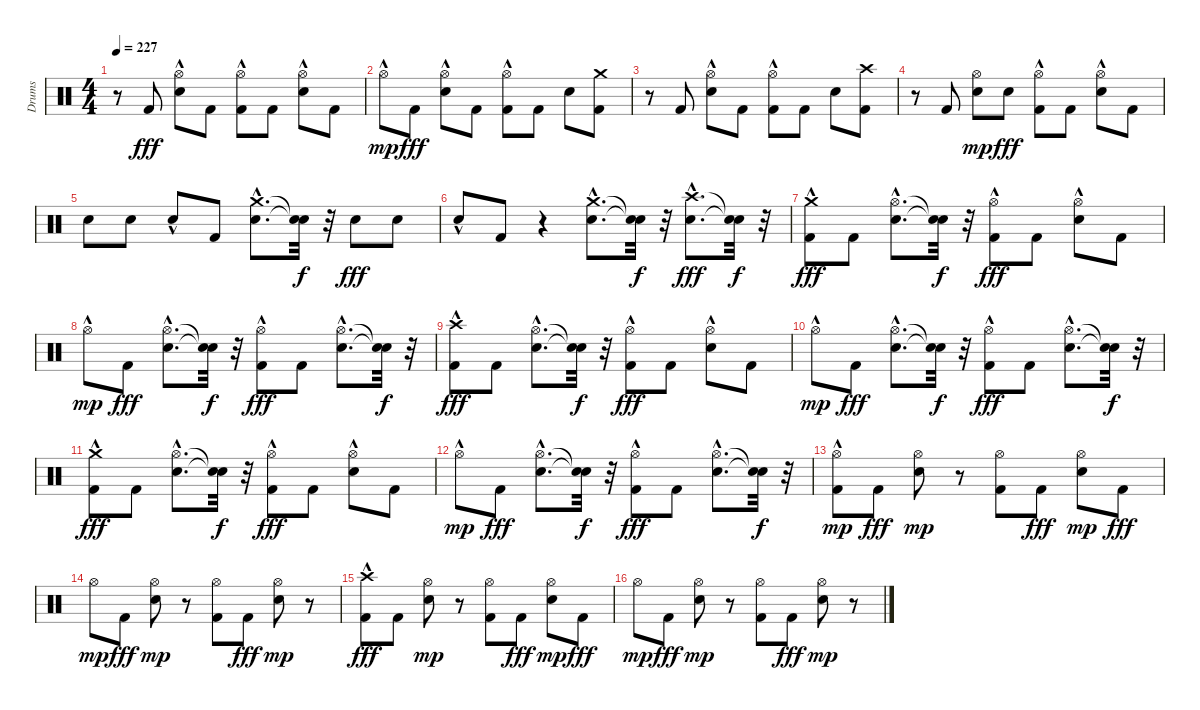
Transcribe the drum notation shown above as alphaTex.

\track ("Drums" "Drums") {instrument percussion}
\staff {score}
\articulation defaults
\ts (4 4)
\tempo 227
\clef neutral
\ks c
r.8{dy fff} "Kick (hit) 2".8 ("Hi-Hat (open)"{hac} "Snare (hit) 2"{hac}).8 "Kick (hit) 2".8 ("Hi-Hat (open)"{hac} "Kick (hit) 2").8 "Kick (hit) 2".8 ("Hi-Hat (open)"{hac} "Snare (hit) 2"{hac}).8 "Kick (hit) 2".8 |
"Hi-Hat (open)"{hac}.8{dy mp} "Kick (hit) 2".8{dy fff} ("Hi-Hat (open)"{hac} "Snare (hit) 2"{hac}).8 "Kick (hit) 2".8 ("Hi-Hat (open)"{hac} "Kick (hit) 2").8 "Kick (hit) 2".8 "Snare (hit) 2".8 ("Kick (hit) 2" "Crash medium (hit)").8 |
r.8 "Kick (hit) 2".8 ("Hi-Hat (open)"{hac} "Snare (hit) 2"{hac}).8 "Kick (hit) 2".8 ("Hi-Hat (open)"{hac} "Kick (hit) 2").8 "Kick (hit) 2".8 "Snare (hit) 2".8 ("Kick (hit) 2" "Crash high (hit)").8 |
r.8 "Kick (hit) 2".8 ("Snare (hit) 2" "Hi-Hat (open)").8{dy mp} "Snare (hit) 2".8{dy fff} ("Hi-Hat (open)"{hac} "Kick (hit) 2").8 "Kick (hit) 2".8 ("Hi-Hat (open)"{hac} "Snare (hit) 2"{hac}).8 "Kick (hit) 2".8 |
"Snare (hit) 2".8 "Snare (hit) 2".8 "Snare (hit) 2"{hac}.8 "Kick (hit) 2".8 ("Snare (hit) 2"{hac} "Crash medium (hit)"{hac}).8{d} ("Snare (hit)"{t} "Snare (hit)"{t}).32{dy f} r.32 "Snare (hit) 2".8{dy fff} "Snare (hit) 2".8 |
"Snare (hit) 2"{hac}.8 "Kick (hit) 2".8 r.4 ("Snare (hit) 2"{hac} "Crash medium (hit)"{hac}).8{d} ("Snare (hit)"{t} "Snare (hit)"{t}).32{dy f} r.32 ("Snare (hit) 2"{hac} "Crash high (hit)"{hac}).8{d dy fff} ("Snare (hit)"{t} "Snare (hit)"{t}).32{dy f} r.32 |
("Kick (hit) 2" "Crash medium (hit)"{hac}).8{dy fff} "Kick (hit) 2".8 ("Hi-Hat (open)"{hac} "Snare (hit) 2"{hac}).8{d} ("Snare (hit)"{t} "Snare (hit)"{t}).32{dy f} r.32 ("Hi-Hat (open)"{hac} "Kick (hit) 2").8{dy fff} "Kick (hit) 2".8 ("Hi-Hat (open)"{hac} "Snare (hit) 2"{hac}).8 "Kick (hit) 2".8 |
"Hi-Hat (open)"{hac}.8{dy mp} "Kick (hit) 2".8{dy fff} ("Hi-Hat (open)"{hac} "Snare (hit) 2"{hac}).8{d} ("Snare (hit)"{t} "Snare (hit)"{t}).32{dy f} r.32 ("Hi-Hat (open)"{hac} "Kick (hit) 2").8{dy fff} "Kick (hit) 2".8 ("Hi-Hat (open)"{hac} "Snare (hit) 2"{hac}).8{d} ("Snare (hit)"{t} "Snare (hit)"{t}).32{dy f} r.32 |
("Kick (hit) 2" "Crash high (hit)"{hac}).8{dy fff} "Kick (hit) 2".8 ("Hi-Hat (open)"{hac} "Snare (hit) 2"{hac}).8{d} ("Snare (hit)"{t} "Snare (hit)"{t}).32{dy f} r.32 ("Hi-Hat (open)"{hac} "Kick (hit) 2").8{dy fff} "Kick (hit) 2".8 ("Hi-Hat (open)"{hac} "Snare (hit) 2"{hac}).8 "Kick (hit) 2".8 |
"Hi-Hat (open)"{hac}.8{dy mp} "Kick (hit) 2".8{dy fff} ("Hi-Hat (open)"{hac} "Snare (hit) 2"{hac}).8{d} ("Snare (hit)"{t} "Snare (hit)"{t}).32{dy f} r.32 ("Hi-Hat (open)"{hac} "Kick (hit) 2").8{dy fff} "Kick (hit) 2".8 ("Hi-Hat (open)"{hac} "Snare (hit) 2"{hac}).8{d} ("Snare (hit)"{t} "Snare (hit)"{t}).32{dy f} r.32 |
("Kick (hit) 2" "Crash medium (hit)"{hac}).8{dy fff} "Kick (hit) 2".8 ("Hi-Hat (open)"{hac} "Snare (hit) 2"{hac}).8{d} ("Snare (hit)"{t} "Snare (hit)"{t}).32{dy f} r.32 ("Hi-Hat (open)"{hac} "Kick (hit) 2").8{dy fff} "Kick (hit) 2".8 ("Hi-Hat (open)"{hac} "Snare (hit) 2"{hac}).8 "Kick (hit) 2".8 |
"Hi-Hat (open)"{hac}.8{dy mp} "Kick (hit) 2".8{dy fff} ("Hi-Hat (open)"{hac} "Snare (hit) 2"{hac}).8{d} ("Snare (hit)"{t} "Snare (hit)"{t}).32{dy f} r.32 ("Hi-Hat (open)"{hac} "Kick (hit) 2").8{dy fff} "Kick (hit) 2".8 ("Hi-Hat (open)"{hac} "Snare (hit) 2"{hac}).8{d} ("Snare (hit)"{t} "Snare (hit)"{t}).32{dy f} r.32 |
("Kick (hit) 2" "Hi-Hat (open)"{hac}).8{dy mp} "Kick (hit) 2".8{dy fff} ("Snare (hit) 2" "Hi-Hat (open)").8{dy mp} r.8 ("Kick (hit) 2" "Hi-Hat (open)").8 "Kick (hit) 2".8{dy fff} ("Snare (hit) 2" "Hi-Hat (open)").8{dy mp} "Kick (hit) 2".8{dy fff} |
"Hi-Hat (open)".8{dy mp} "Kick (hit) 2".8{dy fff} ("Snare (hit) 2" "Hi-Hat (open)").8{dy mp} r.8 ("Kick (hit) 2" "Hi-Hat (open)").8 "Kick (hit) 2".8{dy fff} ("Snare (hit) 2" "Hi-Hat (open)").8{dy mp} r.8 |
("Kick (hit) 2" "Crash high (hit)"{hac}).8{dy fff} "Kick (hit) 2".8 ("Snare (hit) 2" "Hi-Hat (open)").8{dy mp} r.8 ("Kick (hit) 2" "Hi-Hat (open)").8 "Kick (hit) 2".8{dy fff} ("Snare (hit) 2" "Hi-Hat (open)").8{dy mp} "Kick (hit) 2".8{dy fff} |
"Hi-Hat (open)".8{dy mp} "Kick (hit) 2".8{dy fff} ("Snare (hit) 2" "Hi-Hat (open)").8{dy mp} r.8 ("Kick (hit) 2" "Hi-Hat (open)").8 "Kick (hit) 2".8{dy fff} ("Snare (hit) 2" "Hi-Hat (open)").8{dy mp} r.8
